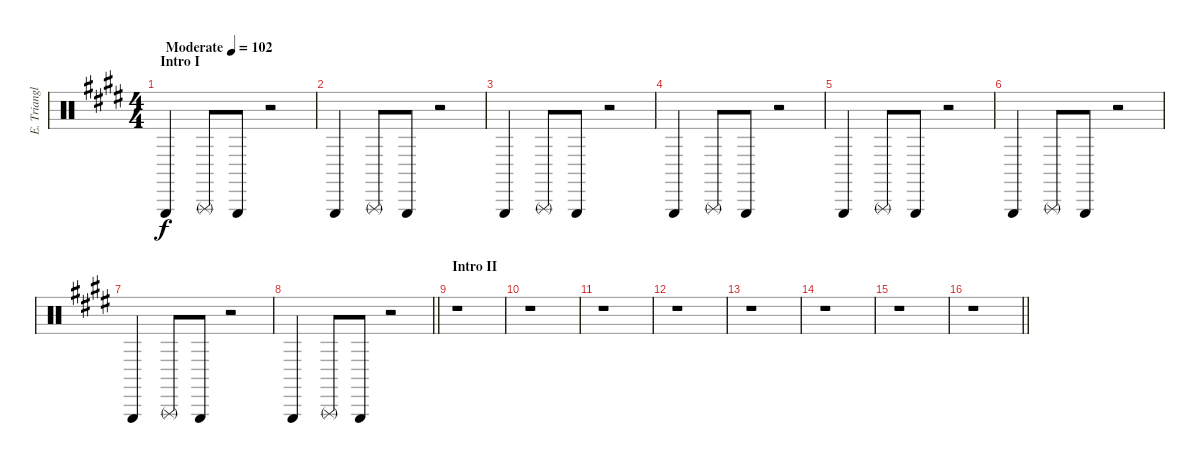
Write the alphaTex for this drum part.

\track ("E. Triangle" "E. Triangl") {instrument percussion}
\staff {score}
\articulation defaults
\ts (4 4)
\section ("" "Intro I")
\tempo (102 "Moderate")
\clef neutral
\ks e "Triangle (hit)".4{dy f} "Triangle (rnute)".8 "Triangle (hit)".8
r.2 |
"Triangle (hit)".4 "Triangle (rnute)".8 "Triangle (hit)".8 r.2 |
"Triangle (hit)".4 "Triangle (rnute)".8 "Triangle (hit)".8 r.2 |
"Triangle (hit)".4 "Triangle (rnute)".8 "Triangle (hit)".8 r.2 |
"Triangle (hit)".4 "Triangle (rnute)".8 "Triangle (hit)".8 r.2 |
"Triangle (hit)".4 "Triangle (rnute)".8 "Triangle (hit)".8 r.2 |
"Triangle (hit)".4 "Triangle (rnute)".8 "Triangle (hit)".8 r.2 |
\barLineRight lightlight "Triangle (hit)".4 "Triangle (rnute)".8 "Triangle (hit)".8
r.2 |
\section ("" "Intro II")
r.1 |
r.1 |
r.1 |
r.1 |
r.1 |
r.1 |
r.1 |
\barLineRight lightlight
r.1
